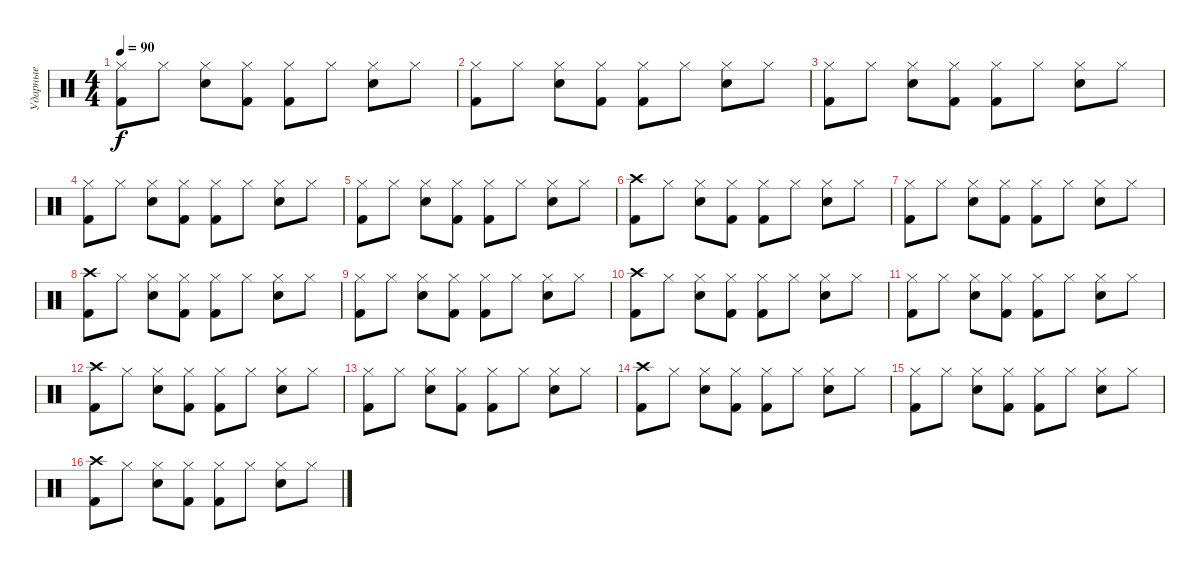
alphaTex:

\track ("Ударные" "Ударные") {instrument percussion}
\staff {score}
\articulation defaults
\ts (4 4)
\tempo 90
\clef neutral
\ks c
("Hi-Hat (closed)" "Kick (hit) 2").8{dy f} "Hi-Hat (closed)".8 ("Hi-Hat (closed)" "Snare (hit) 2").8 ("Hi-Hat (closed)" "Kick (hit) 2").8 ("Hi-Hat (closed)" "Kick (hit) 2").8 "Hi-Hat (closed)".8 ("Hi-Hat (closed)" "Snare (hit) 2").8 "Hi-Hat (closed)".8 |
("Hi-Hat (closed)" "Kick (hit) 2").8 "Hi-Hat (closed)".8 ("Hi-Hat (closed)" "Snare (hit) 2").8 ("Hi-Hat (closed)" "Kick (hit) 2").8 ("Hi-Hat (closed)" "Kick (hit) 2").8 "Hi-Hat (closed)".8 ("Hi-Hat (closed)" "Snare (hit) 2").8 "Hi-Hat (closed)".8 |
("Hi-Hat (closed)" "Kick (hit) 2").8 "Hi-Hat (closed)".8 ("Hi-Hat (closed)" "Snare (hit) 2").8 ("Hi-Hat (closed)" "Kick (hit) 2").8 ("Hi-Hat (closed)" "Kick (hit) 2").8 "Hi-Hat (closed)".8 ("Hi-Hat (closed)" "Snare (hit) 2").8 "Hi-Hat (closed)".8 |
("Hi-Hat (closed)" "Kick (hit) 2").8 "Hi-Hat (closed)".8 ("Hi-Hat (closed)" "Snare (hit) 2").8 ("Hi-Hat (closed)" "Kick (hit) 2").8 ("Hi-Hat (closed)" "Kick (hit) 2").8 "Hi-Hat (closed)".8 ("Hi-Hat (closed)" "Snare (hit) 2").8 "Hi-Hat (closed)".8 |
("Hi-Hat (closed)" "Kick (hit) 2").8 "Hi-Hat (closed)".8 ("Hi-Hat (closed)" "Snare (hit) 2").8 ("Hi-Hat (closed)" "Kick (hit) 2").8 ("Hi-Hat (closed)" "Kick (hit) 2").8 "Hi-Hat (closed)".8 ("Hi-Hat (closed)" "Snare (hit) 2").8 "Hi-Hat (closed)".8 |
("Crash high (hit)" "Kick (hit) 2").8 "Hi-Hat (closed)".8 ("Hi-Hat (closed)" "Snare (hit) 2").8 ("Hi-Hat (closed)" "Kick (hit) 2").8 ("Hi-Hat (closed)" "Kick (hit) 2").8 "Hi-Hat (closed)".8 ("Hi-Hat (closed)" "Snare (hit) 2").8 "Hi-Hat (closed)".8 |
("Hi-Hat (closed)" "Kick (hit) 2").8 "Hi-Hat (closed)".8 ("Hi-Hat (closed)" "Snare (hit) 2").8 ("Hi-Hat (closed)" "Kick (hit) 2").8 ("Hi-Hat (closed)" "Kick (hit) 2").8 "Hi-Hat (closed)".8 ("Hi-Hat (closed)" "Snare (hit) 2").8 "Hi-Hat (closed)".8 |
("Crash high (hit)" "Kick (hit) 2").8 "Hi-Hat (closed)".8 ("Hi-Hat (closed)" "Snare (hit) 2").8 ("Hi-Hat (closed)" "Kick (hit) 2").8 ("Hi-Hat (closed)" "Kick (hit) 2").8 "Hi-Hat (closed)".8 ("Hi-Hat (closed)" "Snare (hit) 2").8 "Hi-Hat (closed)".8 |
("Hi-Hat (closed)" "Kick (hit) 2").8 "Hi-Hat (closed)".8 ("Hi-Hat (closed)" "Snare (hit) 2").8 ("Hi-Hat (closed)" "Kick (hit) 2").8 ("Hi-Hat (closed)" "Kick (hit) 2").8 "Hi-Hat (closed)".8 ("Hi-Hat (closed)" "Snare (hit) 2").8 "Hi-Hat (closed)".8 |
("Crash high (hit)" "Kick (hit) 2").8 "Hi-Hat (closed)".8 ("Hi-Hat (closed)" "Snare (hit) 2").8 ("Hi-Hat (closed)" "Kick (hit) 2").8 ("Hi-Hat (closed)" "Kick (hit) 2").8 "Hi-Hat (closed)".8 ("Hi-Hat (closed)" "Snare (hit) 2").8 "Hi-Hat (closed)".8 |
("Hi-Hat (closed)" "Kick (hit) 2").8 "Hi-Hat (closed)".8 ("Hi-Hat (closed)" "Snare (hit) 2").8 ("Hi-Hat (closed)" "Kick (hit) 2").8 ("Hi-Hat (closed)" "Kick (hit) 2").8 "Hi-Hat (closed)".8 ("Hi-Hat (closed)" "Snare (hit) 2").8 "Hi-Hat (closed)".8 |
("Crash high (hit)" "Kick (hit) 2").8 "Hi-Hat (closed)".8 ("Hi-Hat (closed)" "Snare (hit) 2").8 ("Hi-Hat (closed)" "Kick (hit) 2").8 ("Hi-Hat (closed)" "Kick (hit) 2").8 "Hi-Hat (closed)".8 ("Hi-Hat (closed)" "Snare (hit) 2").8 "Hi-Hat (closed)".8 |
("Hi-Hat (closed)" "Kick (hit) 2").8 "Hi-Hat (closed)".8 ("Hi-Hat (closed)" "Snare (hit) 2").8 ("Hi-Hat (closed)" "Kick (hit) 2").8 ("Hi-Hat (closed)" "Kick (hit) 2").8 "Hi-Hat (closed)".8 ("Hi-Hat (closed)" "Snare (hit) 2").8 "Hi-Hat (closed)".8 |
("Crash high (hit)" "Kick (hit) 2").8 "Hi-Hat (closed)".8 ("Hi-Hat (closed)" "Snare (hit) 2").8 ("Hi-Hat (closed)" "Kick (hit) 2").8 ("Hi-Hat (closed)" "Kick (hit) 2").8 "Hi-Hat (closed)".8 ("Hi-Hat (closed)" "Snare (hit) 2").8 "Hi-Hat (closed)".8 |
("Hi-Hat (closed)" "Kick (hit) 2").8 "Hi-Hat (closed)".8 ("Hi-Hat (closed)" "Snare (hit) 2").8 ("Hi-Hat (closed)" "Kick (hit) 2").8 ("Hi-Hat (closed)" "Kick (hit) 2").8 "Hi-Hat (closed)".8 ("Hi-Hat (closed)" "Snare (hit) 2").8 "Hi-Hat (closed)".8 |
("Crash high (hit)" "Kick (hit) 2").8 "Hi-Hat (closed)".8 ("Hi-Hat (closed)" "Snare (hit) 2").8 ("Hi-Hat (closed)" "Kick (hit) 2").8 ("Hi-Hat (closed)" "Kick (hit) 2").8 "Hi-Hat (closed)".8 ("Hi-Hat (closed)" "Snare (hit) 2").8 "Hi-Hat (closed)".8
